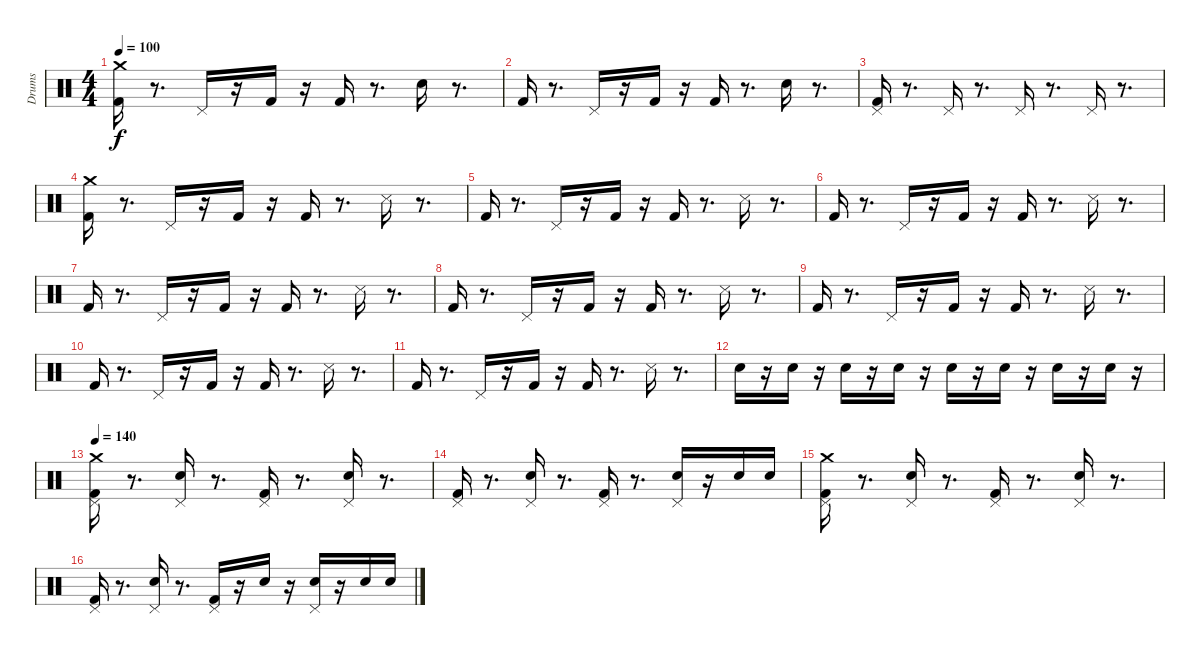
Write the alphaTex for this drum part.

\track ("Drums" "Drums") {instrument percussion}
\staff {score}
\articulation defaults
\ts (4 4)
\tempo 100
\clef neutral
\ks c
("Crash medium (hit)" "Kick (hit) 2").16{dy f} r.8{d} "Pedal Hi-Hat (hit)".16 r.16 "Kick (hit) 2".16 r.16 "Kick (hit) 2".16 r.8{d} "Electric Snare (hit)".16 r.8{d} |
"Kick (hit) 2".16 r.8{d} "Pedal Hi-Hat (hit)".16 r.16 "Kick (hit) 2".16 r.16 "Kick (hit) 2".16 r.8{d} "Electric Snare (hit)".16 r.8{d} |
("Pedal Hi-Hat (hit)" "Kick (hit) 2").16 r.8{d} "Pedal Hi-Hat (hit)".16 r.8{d} "Pedal Hi-Hat (hit)".16 r.8{d} "Pedal Hi-Hat (hit)".16 r.8{d} |
("Crash medium (hit)" "Kick (hit) 2").16 r.8{d} "Pedal Hi-Hat (hit)".16 r.16 "Kick (hit) 2".16 r.16 "Kick (hit) 2".16 r.8{d} "Snare (side stick) 3".16 r.8{d} |
"Kick (hit) 2".16 r.8{d} "Pedal Hi-Hat (hit)".16 r.16 "Kick (hit) 2".16 r.16 "Kick (hit) 2".16 r.8{d} "Snare (side stick) 3".16 r.8{d} |
"Kick (hit) 2".16 r.8{d} "Pedal Hi-Hat (hit)".16 r.16 "Kick (hit) 2".16 r.16 "Kick (hit) 2".16 r.8{d} "Snare (side stick) 3".16 r.8{d} |
"Kick (hit) 2".16 r.8{d} "Pedal Hi-Hat (hit)".16 r.16 "Kick (hit) 2".16 r.16 "Kick (hit) 2".16 r.8{d} "Snare (side stick) 3".16 r.8{d} |
"Kick (hit) 2".16 r.8{d} "Pedal Hi-Hat (hit)".16 r.16 "Kick (hit) 2".16 r.16 "Kick (hit) 2".16 r.8{d} "Snare (side stick) 3".16 r.8{d} |
"Kick (hit) 2".16 r.8{d} "Pedal Hi-Hat (hit)".16 r.16 "Kick (hit) 2".16 r.16 "Kick (hit) 2".16 r.8{d} "Snare (side stick) 3".16 r.8{d} |
"Kick (hit) 2".16 r.8{d} "Pedal Hi-Hat (hit)".16 r.16 "Kick (hit) 2".16 r.16 "Kick (hit) 2".16 r.8{d} "Snare (side stick) 3".16 r.8{d} |
"Kick (hit) 2".16 r.8{d} "Pedal Hi-Hat (hit)".16 r.16 "Kick (hit) 2".16 r.16 "Kick (hit) 2".16 r.8{d} "Snare (side stick) 3".16 r.8{d} |
"Snare (hit) 2".16 r.16 "Snare (hit) 2".16 r.16 "Snare (hit) 2".16 r.16 "Snare (hit) 2".16 r.16 "Snare (hit) 2".16 r.16 "Snare (hit) 2".16 r.16 "Snare (hit) 2".16 r.16 "Snare (hit) 2".16 r.16 |
\tempo 140
("Pedal Hi-Hat (hit)" "Kick (hit) 2" "Crash medium (hit)").16 r.8{d} ("Pedal Hi-Hat (hit)" "Snare (hit) 2").16 r.8{d} ("Pedal Hi-Hat (hit)" "Kick (hit) 2").16 r.8{d} ("Pedal Hi-Hat (hit)" "Snare (hit) 2").16 r.8{d} |
("Pedal Hi-Hat (hit)" "Kick (hit) 2").16 r.8{d} ("Pedal Hi-Hat (hit)" "Snare (hit) 2").16 r.8{d} ("Pedal Hi-Hat (hit)" "Kick (hit) 2").16 r.8{d} ("Pedal Hi-Hat (hit)" "Snare (hit) 2").16 r.16 "Snare (hit) 2".16 "Snare (hit) 2".16 |
("Crash medium (hit)" "Pedal Hi-Hat (hit)" "Kick (hit) 2").16 r.8{d} ("Pedal Hi-Hat (hit)" "Snare (hit) 2").16 r.8{d} ("Pedal Hi-Hat (hit)" "Kick (hit) 2").16 r.8{d} ("Pedal Hi-Hat (hit)" "Snare (hit) 2").16 r.8{d} |
("Pedal Hi-Hat (hit)" "Kick (hit) 2").16 r.8{d} ("Pedal Hi-Hat (hit)" "Snare (hit) 2").16 r.8{d} ("Pedal Hi-Hat (hit)" "Kick (hit) 2").16 r.16 "Snare (hit) 2".16 r.16 ("Pedal Hi-Hat (hit)" "Snare (hit) 2").16 r.16 "Snare (hit) 2".16 "Snare (hit) 2".16
